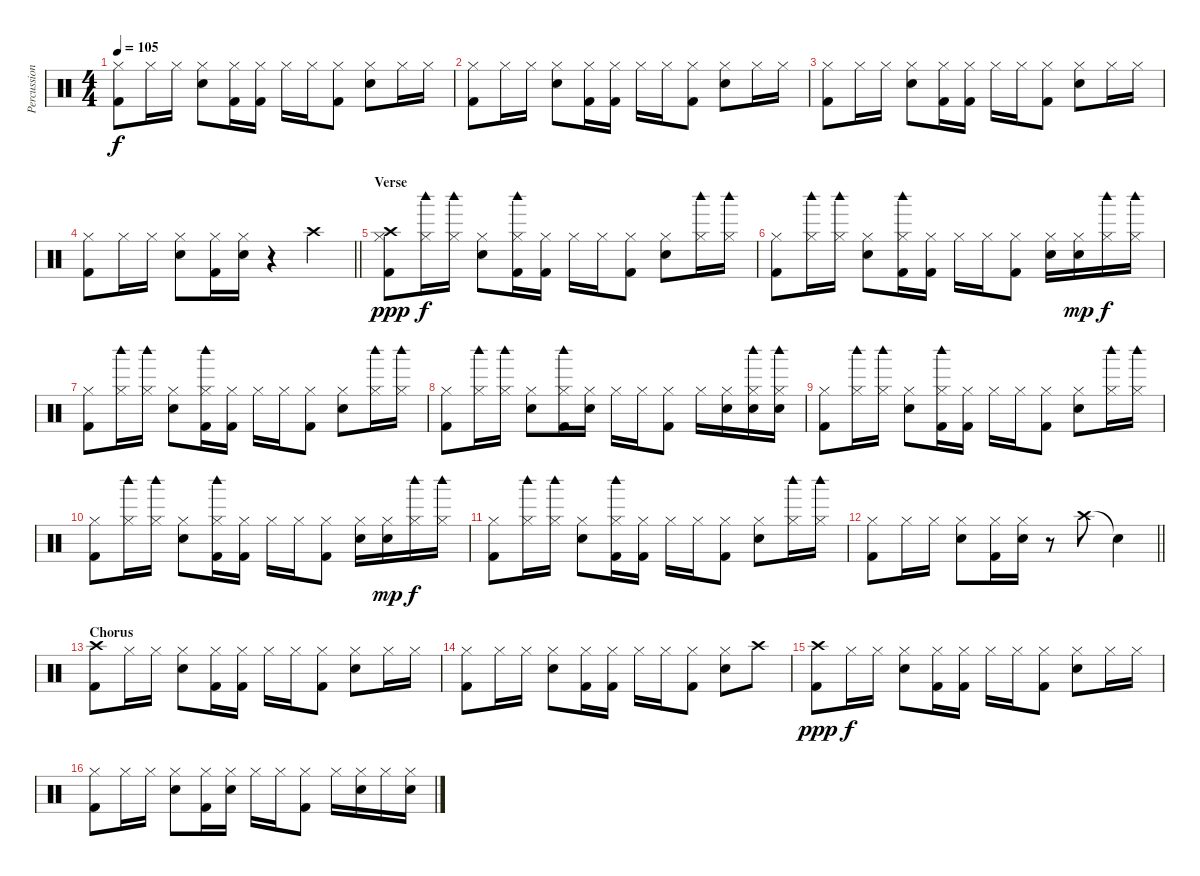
\track ("Percussion" "Percussion") {instrument percussion}
\staff {score}
\articulation defaults
\ts (4 4)
\tempo 105
\clef neutral
\ks c
("Hi-Hat (closed)" "Kick (hit) 2").8{dy f} "Hi-Hat (closed)".16 "Hi-Hat (closed)".16 ("Hi-Hat (closed)" "Electric Snare (hit)").8 ("Hi-Hat (closed)" "Kick (hit) 2").16 ("Hi-Hat (closed)" "Kick (hit) 2").16 "Hi-Hat (closed)".16 "Hi-Hat (closed)".16 ("Hi-Hat (closed)" "Kick (hit) 2").8 ("Hi-Hat (closed)" "Electric Snare (hit)").8 "Hi-Hat (closed)".16 "Hi-Hat (closed)".16 |
("Hi-Hat (closed)" "Kick (hit) 2").8 "Hi-Hat (closed)".16 "Hi-Hat (closed)".16 ("Hi-Hat (closed)" "Electric Snare (hit)").8 ("Hi-Hat (closed)" "Kick (hit) 2").16 ("Hi-Hat (closed)" "Kick (hit) 2").16 "Hi-Hat (closed)".16 "Hi-Hat (closed)".16 ("Hi-Hat (closed)" "Kick (hit) 2").8 ("Hi-Hat (closed)" "Electric Snare (hit)").8 "Hi-Hat (closed)".16 "Hi-Hat (closed)".16 |
("Hi-Hat (closed)" "Kick (hit) 2").8 "Hi-Hat (closed)".16 "Hi-Hat (closed)".16 ("Hi-Hat (closed)" "Electric Snare (hit)").8 ("Hi-Hat (closed)" "Kick (hit) 2").16 ("Hi-Hat (closed)" "Kick (hit) 2").16 "Hi-Hat (closed)".16 "Hi-Hat (closed)".16 ("Hi-Hat (closed)" "Kick (hit) 2").8 ("Hi-Hat (closed)" "Electric Snare (hit)").8 "Hi-Hat (closed)".16 "Hi-Hat (closed)".16 |
\barLineRight lightlight
("Hi-Hat (closed)" "Kick (hit) 2").8 "Hi-Hat (closed)".16 "Hi-Hat (closed)".16 ("Hi-Hat (closed)" "Electric Snare (hit)").8 ("Hi-Hat (closed)" "Kick (hit) 2").16 ("Hi-Hat (closed)" "Electric Snare (hit)").16 r.4{volume 0} "Crash high (hit)".4{volume 15} |
\section ("" "Verse")
("Crash high (hit)" "Hi-Hat (closed)" "Kick (hit) 2").8{dy ppp volume 13} ("Hi-Hat (closed)" "Woodblock high (hit)").16{dy f} ("Hi-Hat (closed)" "Woodblock high (hit)").16 ("Hi-Hat (closed)" "Electric Snare (hit)").8 ("Hi-Hat (closed)" "Woodblock high (hit)" "Kick (hit) 2").16 ("Hi-Hat (closed)" "Kick (hit) 2").16 "Hi-Hat (closed)".16 "Hi-Hat (closed)".16 ("Hi-Hat (closed)" "Kick (hit) 2").8 ("Hi-Hat (closed)" "Electric Snare (hit)").8 ("Hi-Hat (closed)" "Woodblock high (hit)").16 ("Hi-Hat (closed)" "Woodblock high (hit)").16 |
("Hi-Hat (closed)" "Kick (hit) 2").8 ("Hi-Hat (closed)" "Woodblock high (hit)").16 ("Hi-Hat (closed)" "Woodblock high (hit)").16 ("Hi-Hat (closed)" "Electric Snare (hit)").8 ("Hi-Hat (closed)" "Woodblock high (hit)" "Kick (hit) 2").16 ("Hi-Hat (closed)" "Kick (hit) 2").16 "Hi-Hat (closed)".16 "Hi-Hat (closed)".16 ("Hi-Hat (closed)" "Kick (hit) 2").8 ("Hi-Hat (closed)" "Electric Snare (hit)").16 ("Hi-Hat (closed)" "Electric Snare (hit)").16{dy mp} ("Hi-Hat (closed)" "Woodblock high (hit)").16{dy f} ("Hi-Hat (closed)" "Woodblock high (hit)").16 |
("Hi-Hat (closed)" "Kick (hit) 2").8 ("Hi-Hat (closed)" "Woodblock high (hit)").16 ("Hi-Hat (closed)" "Woodblock high (hit)").16 ("Hi-Hat (closed)" "Electric Snare (hit)").8 ("Hi-Hat (closed)" "Woodblock high (hit)" "Kick (hit) 2").16 ("Hi-Hat (closed)" "Kick (hit) 2").16 "Hi-Hat (closed)".16 "Hi-Hat (closed)".16 ("Hi-Hat (closed)" "Kick (hit) 2").8 ("Hi-Hat (closed)" "Electric Snare (hit)").8 ("Hi-Hat (closed)" "Woodblock high (hit)").16 ("Hi-Hat (closed)" "Woodblock high (hit)").16 |
("Hi-Hat (closed)" "Kick (hit) 2").8 ("Hi-Hat (closed)" "Woodblock high (hit)").16 ("Hi-Hat (closed)" "Woodblock high (hit)").16 ("Hi-Hat (closed)" "Electric Snare (hit)").8 ("Hi-Hat (closed)" "Woodblock high (hit)" "Kick (hit) 2").16 ("Hi-Hat (closed)" "Electric Snare (hit)").16 "Hi-Hat (closed)".16 "Hi-Hat (closed)".16 ("Hi-Hat (closed)" "Kick (hit) 2").8 "Hi-Hat (closed)".16 ("Hi-Hat (closed)" "Electric Snare (hit)").16 ("Hi-Hat (closed)" "Woodblock high (hit)" "Electric Snare (hit)").16 ("Hi-Hat (closed)" "Woodblock high (hit)" "Electric Snare (hit)").16 |
("Hi-Hat (closed)" "Kick (hit) 2").8 ("Hi-Hat (closed)" "Woodblock high (hit)").16 ("Hi-Hat (closed)" "Woodblock high (hit)").16 ("Hi-Hat (closed)" "Electric Snare (hit)").8 ("Hi-Hat (closed)" "Woodblock high (hit)" "Kick (hit) 2").16 ("Hi-Hat (closed)" "Kick (hit) 2").16 "Hi-Hat (closed)".16 "Hi-Hat (closed)".16 ("Hi-Hat (closed)" "Kick (hit) 2").8 ("Hi-Hat (closed)" "Electric Snare (hit)").8 ("Hi-Hat (closed)" "Woodblock high (hit)").16 ("Hi-Hat (closed)" "Woodblock high (hit)").16 |
("Hi-Hat (closed)" "Kick (hit) 2").8 ("Hi-Hat (closed)" "Woodblock high (hit)").16 ("Hi-Hat (closed)" "Woodblock high (hit)").16 ("Hi-Hat (closed)" "Electric Snare (hit)").8 ("Hi-Hat (closed)" "Woodblock high (hit)" "Kick (hit) 2").16 ("Hi-Hat (closed)" "Kick (hit) 2").16 "Hi-Hat (closed)".16 "Hi-Hat (closed)".16 ("Hi-Hat (closed)" "Kick (hit) 2").8 ("Hi-Hat (closed)" "Electric Snare (hit)").16 ("Hi-Hat (closed)" "Electric Snare (hit)").16{dy mp} ("Hi-Hat (closed)" "Woodblock high (hit)").16{dy f} ("Hi-Hat (closed)" "Woodblock high (hit)").16 |
("Hi-Hat (closed)" "Kick (hit) 2").8 ("Hi-Hat (closed)" "Woodblock high (hit)").16 ("Hi-Hat (closed)" "Woodblock high (hit)").16 ("Hi-Hat (closed)" "Electric Snare (hit)").8 ("Hi-Hat (closed)" "Woodblock high (hit)" "Kick (hit) 2").16 ("Hi-Hat (closed)" "Kick (hit) 2").16 "Hi-Hat (closed)".16 "Hi-Hat (closed)".16 ("Hi-Hat (closed)" "Kick (hit) 2").8 ("Hi-Hat (closed)" "Electric Snare (hit)").8 ("Hi-Hat (closed)" "Woodblock high (hit)").16 ("Hi-Hat (closed)" "Woodblock high (hit)").16 |
\barLineRight lightlight
("Hi-Hat (closed)" "Kick (hit) 2").8 "Hi-Hat (closed)".16 "Hi-Hat (closed)".16 ("Hi-Hat (closed)" "Electric Snare (hit)").8 ("Hi-Hat (closed)" "Kick (hit) 2").16 ("Hi-Hat (closed)" "Electric Snare (hit)").16 r.8{volume 0} "Crash high (hit)".8{volume 15} "Snare (hit)"{t}.4 |
\section ("" "Chorus")
("Crash high (hit)" "Kick (hit) 2").8{volume 13} "Hi-Hat (closed)".16 "Hi-Hat (closed)".16 ("Hi-Hat (closed)" "Electric Snare (hit)").8 ("Hi-Hat (closed)" "Kick (hit) 2").16 ("Hi-Hat (closed)" "Kick (hit) 2").16 "Hi-Hat (closed)".16 "Hi-Hat (closed)".16 ("Hi-Hat (closed)" "Kick (hit) 2").8 ("Hi-Hat (closed)" "Electric Snare (hit)").8 "Hi-Hat (closed)".16 "Hi-Hat (closed)".16 |
("Hi-Hat (closed)" "Kick (hit) 2").8 "Hi-Hat (closed)".16 "Hi-Hat (closed)".16 ("Hi-Hat (closed)" "Electric Snare (hit)").8 ("Hi-Hat (closed)" "Kick (hit) 2").16 ("Hi-Hat (closed)" "Kick (hit) 2").16 "Hi-Hat (closed)".16 "Hi-Hat (closed)".16 ("Hi-Hat (closed)" "Kick (hit) 2").8 ("Hi-Hat (closed)" "Electric Snare (hit)").8 "Crash high (hit)".8 |
("Crash high (hit)" "Kick (hit) 2").8{dy ppp} "Hi-Hat (closed)".16{dy f} "Hi-Hat (closed)".16 ("Hi-Hat (closed)" "Electric Snare (hit)").8 ("Hi-Hat (closed)" "Kick (hit) 2").16 ("Hi-Hat (closed)" "Kick (hit) 2").16 "Hi-Hat (closed)".16 "Hi-Hat (closed)".16 ("Hi-Hat (closed)" "Kick (hit) 2").8 ("Hi-Hat (closed)" "Electric Snare (hit)").8 "Hi-Hat (closed)".16 "Hi-Hat (closed)".16 |
("Hi-Hat (closed)" "Kick (hit) 2").8 "Hi-Hat (closed)".16 "Hi-Hat (closed)".16 ("Hi-Hat (closed)" "Electric Snare (hit)").8 ("Hi-Hat (closed)" "Kick (hit) 2").16 ("Hi-Hat (closed)" "Electric Snare (hit)").16 "Hi-Hat (closed)".16 "Hi-Hat (closed)".16 ("Hi-Hat (closed)" "Kick (hit) 2").8 "Hi-Hat (closed)".16 ("Hi-Hat (closed)" "Electric Snare (hit)").16 "Hi-Hat (closed)".16 ("Hi-Hat (closed)" "Electric Snare (hit)").16
